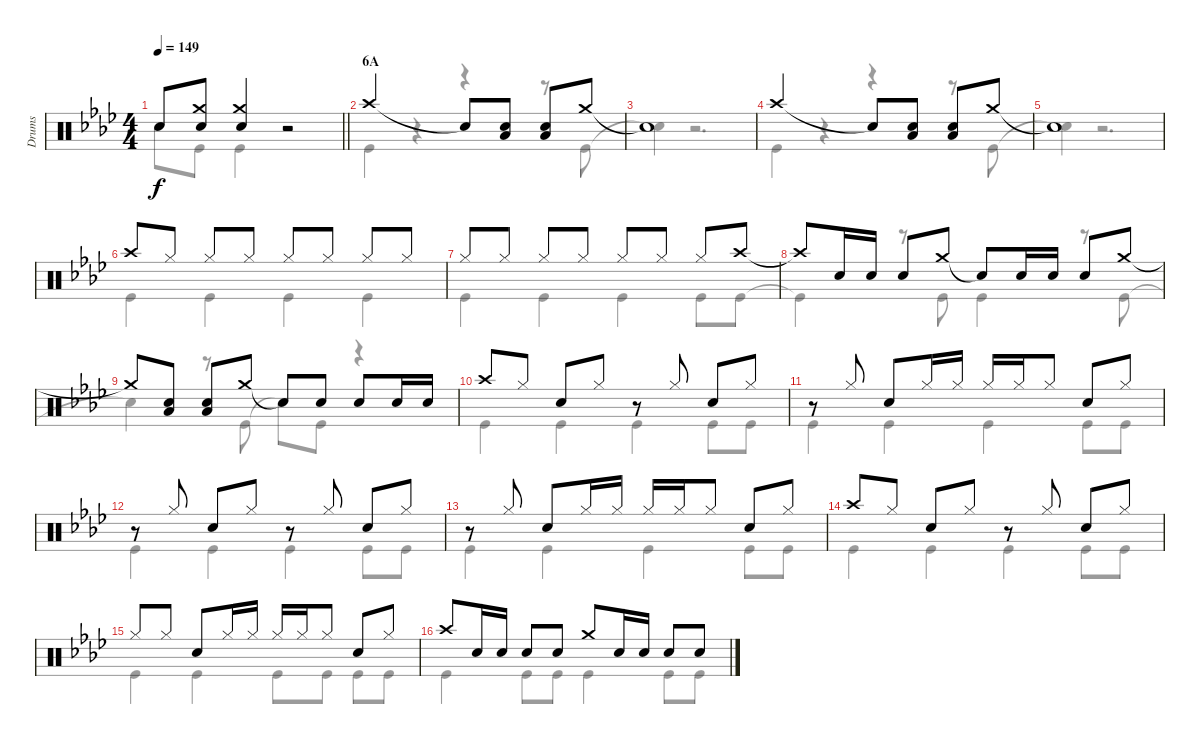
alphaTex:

\track ("Drums" "Drums") {instrument percussion}
\staff {score}
\articulation defaults
\voice
\ts (4 4)
\tempo 149
\clef neutral
\barLineRight lightlight
\ks ab "Snare (hit)"{t}.8{dy f}
("Crash medium (hit)" "Snare (hit) 2").8 ("Crash medium (hit)" "Snare (hit) 2").4 r.2 |
\section ("" "6A")
"Crash high (hit)".2 "Snare (hit)"{t}.8 ("Snare (hit) 2" "Low Tom (hit)").8 ("Snare (hit) 2" "Low Tom (hit)").8 "Crash medium (hit)".8 |
"Snare (hit)"{t}.1 |
"Crash high (hit)".2 "Snare (hit)"{t}.8 ("Snare (hit) 2" "Low Tom (hit)").8 ("Snare (hit) 2" "Low Tom (hit)").8 "Crash medium (hit)".8 |
"Snare (hit)"{t}.1 |
"Crash high (hit)".8 "Hi-Hat (closed)".8 "Hi-Hat (closed)".8 "Hi-Hat (closed)".8 "Hi-Hat (closed)".8 "Hi-Hat (closed)".8 "Hi-Hat (closed)".8 "Hi-Hat (closed)".8 |
"Hi-Hat (closed)".8 "Hi-Hat (closed)".8 "Hi-Hat (closed)".8 "Hi-Hat (closed)".8 "Hi-Hat (closed)".8 "Hi-Hat (closed)".8 "Hi-Hat (closed)".8 "Crash high (hit)".8 |
"Crash high (hit)"{t}.8 "Snare (hit) 2".16 "Snare (hit) 2".16 "Snare (hit) 2".8 "Crash medium (hit)".8 "Snare (hit)"{t}.8 "Snare (hit) 2".16 "Snare (hit) 2".16 "Snare (hit) 2".8 "Crash medium (hit)".8 |
"Crash medium (hit)"{t}.8 ("Snare (hit) 2" "Low Tom (hit)").8 ("Snare (hit) 2" "Low Tom (hit)").8 "Crash medium (hit)".8 "Snare (hit)"{t}.8 "Snare (hit) 2".8 "Snare (hit) 2".8 "Snare (hit) 2".16 "Snare (hit) 2".16 |
"Crash high (hit)".8 "Hi-Hat (closed)".8 "Snare (hit) 2".8 "Hi-Hat (closed)".8 r.8 "Hi-Hat (closed)".8 "Snare (hit) 2".8 "Hi-Hat (closed)".8 |
r.8 "Hi-Hat (closed)".8 "Snare (hit) 2".8 "Hi-Hat (closed)".16 "Hi-Hat (closed)".16 "Hi-Hat (closed)".16 "Hi-Hat (closed)".16 "Hi-Hat (closed)".8 "Snare (hit) 2".8 "Hi-Hat (closed)".8 |
r.8 "Hi-Hat (closed)".8 "Snare (hit) 2".8 "Hi-Hat (closed)".8 r.8 "Hi-Hat (closed)".8 "Snare (hit) 2".8 "Hi-Hat (closed)".8 |
r.8 "Hi-Hat (closed)".8 "Snare (hit) 2".8 "Hi-Hat (closed)".16 "Hi-Hat (closed)".16 "Hi-Hat (closed)".16 "Hi-Hat (closed)".16 "Hi-Hat (closed)".8 "Snare (hit) 2".8 "Hi-Hat (closed)".8 |
"Crash high (hit)".8 "Hi-Hat (closed)".8 "Snare (hit) 2".8 "Hi-Hat (closed)".8 r.8 "Hi-Hat (closed)".8 "Snare (hit) 2".8 "Hi-Hat (closed)".8 |
"Hi-Hat (closed)".8 "Hi-Hat (closed)".8 "Snare (hit) 2".8 "Hi-Hat (closed)".16 "Hi-Hat (closed)".16 "Hi-Hat (closed)".16 "Hi-Hat (closed)".16 "Hi-Hat (closed)".8 "Snare (hit) 2".8 "Hi-Hat (closed)".8 |
"Crash high (hit)".8 "Snare (hit) 2".16 "Snare (hit) 2".16 "Snare (hit) 2".8 "Snare (hit) 2".8 "Crash medium (hit)".8 "Snare (hit) 2".16 "Snare (hit) 2".16 "Snare (hit) 2".8 "Snare (hit) 2".8
\voice
\clef neutral
\ottava regular
\simile none
\barLineRight lightlight
\ks ab "Snare (hit)"{t}.8{dy f} "Kick (hit)".8 "Kick (hit)".4
r.2 |
"Kick (hit)".4 r.4 r.4 r.8 "Kick (hit)".8 |
"Snare (hit)"{t}.4 r.2{d} |
"Kick (hit)".4 r.4 r.4 r.8 "Kick (hit)".8 |
"Snare (hit)"{t}.4 r.2{d} |
"Kick (hit)".4 "Kick (hit)".4 "Kick (hit)".4 "Kick (hit)".4 |
"Kick (hit)".4 "Kick (hit)".4 "Kick (hit)".4 "Kick (hit)".8 "Kick (hit)".8 |
"Kick (hit)"{t}.4 r.8 "Kick (hit)".8 "Kick (hit)".4 r.8 "Kick (hit)".8 |
"Snare (hit)"{t}.4 r.8 "Kick (hit)".8 "Snare (hit)"{t}.8 "Kick (hit)".8 r.4 |
"Kick (hit)".4 "Kick (hit)".4 "Kick (hit)".4 "Kick (hit)".8 "Kick (hit)".8 |
"Kick (hit)".4 "Kick (hit)".4 "Kick (hit)".4 "Kick (hit)".8 "Kick (hit)".8 |
"Kick (hit)".4 "Kick (hit)".4 "Kick (hit)".4 "Kick (hit)".8 "Kick (hit)".8 |
"Kick (hit)".4 "Kick (hit)".4 "Kick (hit)".4 "Kick (hit)".8 "Kick (hit)".8 |
"Kick (hit)".4 "Kick (hit)".4 "Kick (hit)".4 "Kick (hit)".8 "Kick (hit)".8 |
"Kick (hit)".4 "Kick (hit)".4 "Kick (hit)".8 "Kick (hit)".8 "Kick (hit)".8 "Kick (hit)".8 |
"Kick (hit)".4 "Kick (hit)".8 "Kick (hit)".8 "Kick (hit)".4 "Kick (hit)".8 "Kick (hit)".8
